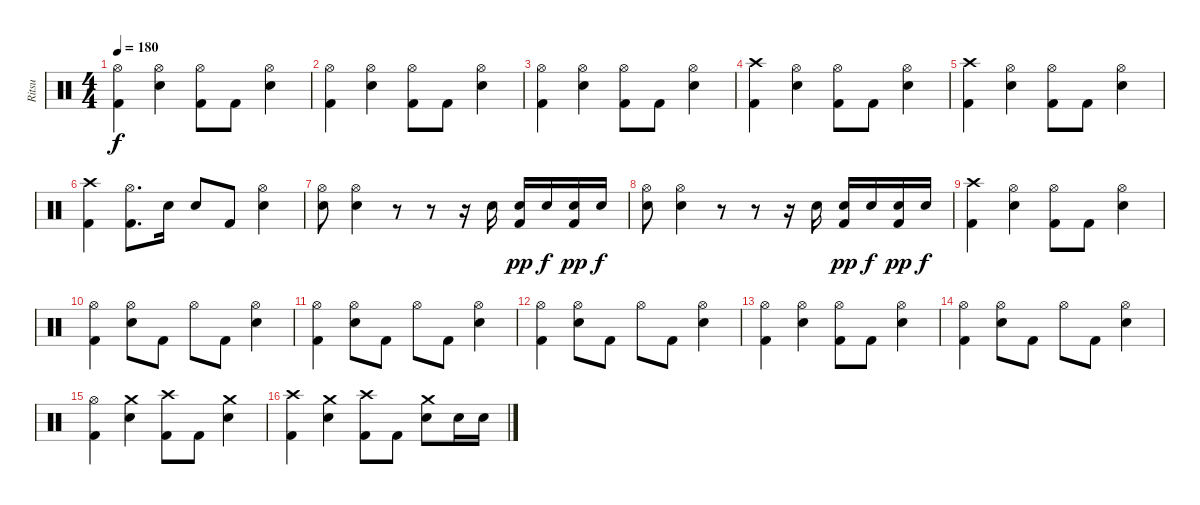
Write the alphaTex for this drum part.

\track ("Ritsu" "Ritsu") {instrument percussion}
\staff {score}
\articulation defaults
\ts (4 4)
\tempo 180
\clef neutral
\ks c
("Hi-Hat (open)" "Kick (hit) 2").4{dy f} ("Hi-Hat (open)" "Snare (hit) 2").4 ("Hi-Hat (open)" "Kick (hit) 2").8 "Kick (hit) 2".8 ("Hi-Hat (open)" "Snare (hit) 2").4 |
("Hi-Hat (open)" "Kick (hit) 2").4 ("Hi-Hat (open)" "Snare (hit) 2").4 ("Hi-Hat (open)" "Kick (hit) 2").8 "Kick (hit) 2".8 ("Hi-Hat (open)" "Snare (hit) 2").4 |
("Hi-Hat (open)" "Kick (hit) 2").4 ("Hi-Hat (open)" "Snare (hit) 2").4 ("Hi-Hat (open)" "Kick (hit) 2").8 "Kick (hit) 2".8 ("Hi-Hat (open)" "Snare (hit) 2").4 |
("Crash high (hit)" "Kick (hit) 2").4 ("Hi-Hat (open)" "Snare (hit) 2").4 ("Hi-Hat (open)" "Kick (hit) 2").8 "Kick (hit) 2".8 ("Hi-Hat (open)" "Snare (hit) 2").4 |
("Crash high (hit)" "Kick (hit) 2").4 ("Hi-Hat (open)" "Snare (hit) 2").4 ("Hi-Hat (open)" "Kick (hit) 2").8 "Kick (hit) 2".8 ("Hi-Hat (open)" "Snare (hit) 2").4 |
("Crash high (hit)" "Kick (hit) 2").4 ("Hi-Hat (open)" "Kick (hit) 2").8{d} "Snare (hit) 2".16 "Snare (hit) 2".8 "Kick (hit) 2".8 ("Hi-Hat (open)" "Snare (hit) 2").4 |
("Hi-Hat (open)" "Snare (hit) 2").8 ("Hi-Hat (open)" "Snare (hit) 2").4 r.8 r.8 r.16 "Snare (hit) 2".16 ("Snare (hit) 2" "Kick (hit) 2").16{dy pp} "Snare (hit) 2".16{dy f} ("Snare (hit) 2" "Kick (hit) 2").16{dy pp} "Snare (hit) 2".16{dy f} |
("Hi-Hat (open)" "Snare (hit) 2").8 ("Hi-Hat (open)" "Snare (hit) 2").4 r.8 r.8 r.16 "Snare (hit) 2".16 ("Snare (hit) 2" "Kick (hit) 2").16{dy pp} "Snare (hit) 2".16{dy f} ("Snare (hit) 2" "Kick (hit) 2").16{dy pp} "Snare (hit) 2".16{dy f} |
("Crash high (hit)" "Kick (hit) 2").4 ("Hi-Hat (open)" "Snare (hit) 2").4 ("Hi-Hat (open)" "Kick (hit) 2").8 "Kick (hit) 2".8 ("Hi-Hat (open)" "Snare (hit) 2").4 |
("Hi-Hat (open)" "Kick (hit) 2").4 ("Hi-Hat (open)" "Snare (hit) 2").8 "Kick (hit) 2".8 "Hi-Hat (open)".8 "Kick (hit) 2".8 ("Hi-Hat (open)" "Snare (hit) 2").4 |
("Hi-Hat (open)" "Kick (hit) 2").4 ("Hi-Hat (open)" "Snare (hit) 2").8 "Kick (hit) 2".8 "Hi-Hat (open)".8 "Kick (hit) 2".8 ("Hi-Hat (open)" "Snare (hit) 2").4 |
("Hi-Hat (open)" "Kick (hit) 2").4 ("Hi-Hat (open)" "Snare (hit) 2").8 "Kick (hit) 2".8 "Hi-Hat (open)".8 "Kick (hit) 2".8 ("Hi-Hat (open)" "Snare (hit) 2").4 |
("Hi-Hat (open)" "Kick (hit) 2").4 ("Hi-Hat (open)" "Snare (hit) 2").4 ("Hi-Hat (open)" "Kick (hit) 2").8 "Kick (hit) 2".8 ("Hi-Hat (open)" "Snare (hit) 2").4 |
("Hi-Hat (open)" "Kick (hit) 2").4 ("Hi-Hat (open)" "Snare (hit) 2").8 "Kick (hit) 2".8 "Hi-Hat (open)".8 "Kick (hit) 2".8 ("Hi-Hat (open)" "Snare (hit) 2").4 |
("Hi-Hat (open)" "Kick (hit) 2").4 ("Crash medium (hit)" "Snare (hit) 2").4 ("Crash high (hit)" "Kick (hit) 2").8 "Kick (hit) 2".8 ("Crash medium (hit)" "Snare (hit) 2").4 |
("Crash high (hit)" "Kick (hit) 2").4 ("Crash medium (hit)" "Snare (hit) 2").4 ("Crash high (hit)" "Kick (hit) 2").8 "Kick (hit) 2".8 ("Crash medium (hit)" "Snare (hit) 2").8 "Snare (hit) 2".16 "Snare (hit) 2".16
